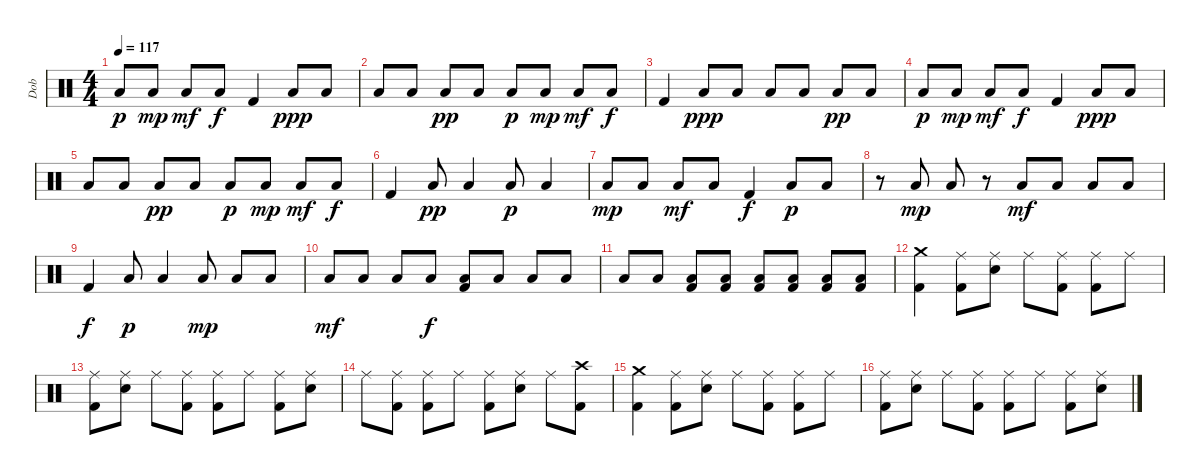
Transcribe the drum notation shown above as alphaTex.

\track ("Dob" "Dob") {instrument percussion}
\staff
\articulation defaults
\ts (4 4)
\tempo 117
\clef neutral
\ks c "Low Floor Tom (hit)".8{dy p} "Low Floor Tom (hit)".8{dy mp} "Low Floor Tom (hit)".8{dy mf} "Low Floor Tom (hit)".8{dy f} "Kick (hit) 2".4 "Low Floor Tom (hit)".8{dy ppp} "Low Floor Tom (hit)".8
|
"Low Floor Tom (hit)".8 "Low Floor Tom (hit)".8 "Low Floor Tom (hit)".8{dy pp} "Low Floor Tom (hit)".8 "Low Floor Tom (hit)".8{dy p} "Low Floor Tom (hit)".8{dy mp} "Low Floor Tom (hit)".8{dy mf} "Low Floor Tom (hit)".8{dy f} |
"Kick (hit) 2".4 "Low Floor Tom (hit)".8{dy ppp} "Low Floor Tom (hit)".8 "Low Floor Tom (hit)".8 "Low Floor Tom (hit)".8 "Low Floor Tom (hit)".8{dy pp} "Low Floor Tom (hit)".8 |
"Low Floor Tom (hit)".8{dy p} "Low Floor Tom (hit)".8{dy mp} "Low Floor Tom (hit)".8{dy mf} "Low Floor Tom (hit)".8{dy f} "Kick (hit) 2".4 "Low Floor Tom (hit)".8{dy ppp} "Low Floor Tom (hit)".8 |
"Low Floor Tom (hit)".8 "Low Floor Tom (hit)".8 "Low Floor Tom (hit)".8{dy pp} "Low Floor Tom (hit)".8 "Low Floor Tom (hit)".8{dy p} "Low Floor Tom (hit)".8{dy mp} "Low Floor Tom (hit)".8{dy mf} "Low Floor Tom (hit)".8{dy f} |
"Kick (hit) 2".4 "Low Floor Tom (hit)".8{dy pp} "Low Floor Tom (hit)".4 "Low Floor Tom (hit)".8{dy p} "Low Floor Tom (hit)".4 |
"Low Floor Tom (hit)".8{dy mp} "Low Floor Tom (hit)".8 "Low Floor Tom (hit)".8{dy mf} "Low Floor Tom (hit)".8 "Kick (hit) 2".4{dy f} "Low Floor Tom (hit)".8{dy p} "Low Floor Tom (hit)".8 |
r.8 "Low Floor Tom (hit)".8{dy mp} "Low Floor Tom (hit)".8 r.8 "Low Floor Tom (hit)".8{dy mf} "Low Floor Tom (hit)".8 "Low Floor Tom (hit)".8 "Low Floor Tom (hit)".8 |
"Kick (hit) 2".4{dy f} "Low Floor Tom (hit)".8{dy p} "Low Floor Tom (hit)".4 "Low Floor Tom (hit)".8{dy mp} "Low Floor Tom (hit)".8 "Low Floor Tom (hit)".8 |
"Low Floor Tom (hit)".8{dy mf} "Low Floor Tom (hit)".8 "Low Floor Tom (hit)".8 "Low Floor Tom (hit)".8{dy f} ("Low Floor Tom (hit)" "Kick (hit) 2").8 "Low Floor Tom (hit)".8 "Low Floor Tom (hit)".8 "Low Floor Tom (hit)".8 |
"Low Floor Tom (hit)".8 "Low Floor Tom (hit)".8 ("Low Floor Tom (hit)" "Kick (hit) 2").8 ("Low Floor Tom (hit)" "Kick (hit) 2").8 ("Low Floor Tom (hit)" "Kick (hit) 2").8 ("Low Floor Tom (hit)" "Kick (hit) 2").8 ("Low Floor Tom (hit)" "Kick (hit) 2").8 ("Low Floor Tom (hit)" "Kick (hit) 2").8 |
("Crash medium (hit)" "Kick (hit) 2").4 ("Ride (middle)" "Kick (hit) 2").8 ("Ride (middle)" "Snare (hit) 2").8 "Ride (middle)".8 ("Ride (middle)" "Kick (hit) 2").8 ("Ride (middle)" "Kick (hit) 2").8 "Ride (middle)".8 |
("Ride (middle)" "Kick (hit) 2").8 ("Ride (middle)" "Snare (hit) 2").8 "Ride (middle)".8 ("Ride (middle)" "Kick (hit) 2").8 ("Ride (middle)" "Kick (hit) 2").8 "Ride (middle)".8 ("Ride (middle)" "Kick (hit) 2").8 ("Ride (middle)" "Snare (hit) 2").8 |
"Ride (middle)".8 ("Ride (middle)" "Kick (hit) 2").8 ("Ride (middle)" "Kick (hit) 2").8 "Ride (middle)".8 ("Ride (middle)" "Kick (hit) 2").8 ("Ride (middle)" "Snare (hit) 2").8 "Ride (middle)".8 ("Crash high (hit)" "Kick (hit) 2").8 |
("Crash medium (hit)" "Kick (hit) 2").4 ("Ride (middle)" "Kick (hit) 2").8 ("Ride (middle)" "Snare (hit) 2").8 "Ride (middle)".8 ("Ride (middle)" "Kick (hit) 2").8 ("Ride (middle)" "Kick (hit) 2").8 "Ride (middle)".8 |
("Ride (middle)" "Kick (hit) 2").8 ("Ride (middle)" "Snare (hit) 2").8 "Ride (middle)".8 ("Ride (middle)" "Kick (hit) 2").8 ("Ride (middle)" "Kick (hit) 2").8 "Ride (middle)".8 ("Ride (middle)" "Kick (hit) 2").8 ("Ride (middle)" "Snare (hit) 2").8
